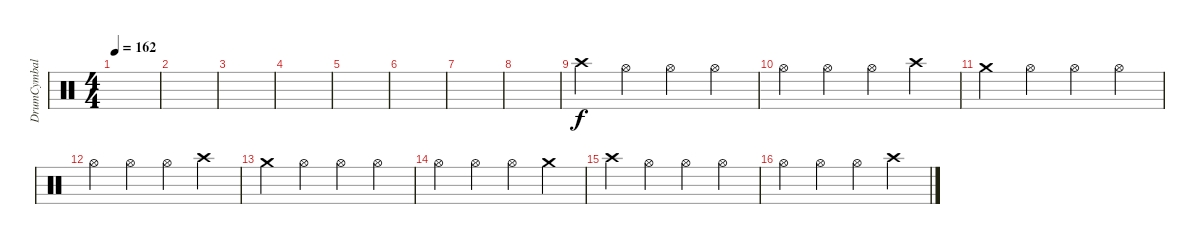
\track ("DrumCymbal" "DrumCymbal") {instrument percussion}
\staff {score}
\articulation defaults
\ts (4 4)
\tempo 162
\clef neutral
\ks c
|
|
|
|
|
|
|
|
"Crash high (hit)".4 "Hi-Hat (open)".4 "Hi-Hat (open)".4 "Hi-Hat (open)".4 |
"Hi-Hat (open)".4 "Hi-Hat (open)".4 "Hi-Hat (open)".4 "Crash high (hit)".4 |
"Crash medium (hit)".4 "Hi-Hat (open)".4 "Hi-Hat (open)".4 "Hi-Hat (open)".4 |
"Hi-Hat (open)".4 "Hi-Hat (open)".4 "Hi-Hat (open)".4 "Crash high (hit)".4 |
"Crash medium (hit)".4 "Hi-Hat (open)".4 "Hi-Hat (open)".4 "Hi-Hat (open)".4 |
"Hi-Hat (open)".4 "Hi-Hat (open)".4 "Hi-Hat (open)".4 "Crash medium (hit)".4 |
"Crash high (hit)".4 "Hi-Hat (open)".4 "Hi-Hat (open)".4 "Hi-Hat (open)".4 |
"Hi-Hat (open)".4 "Hi-Hat (open)".4 "Hi-Hat (open)".4 "Crash high (hit)".4
